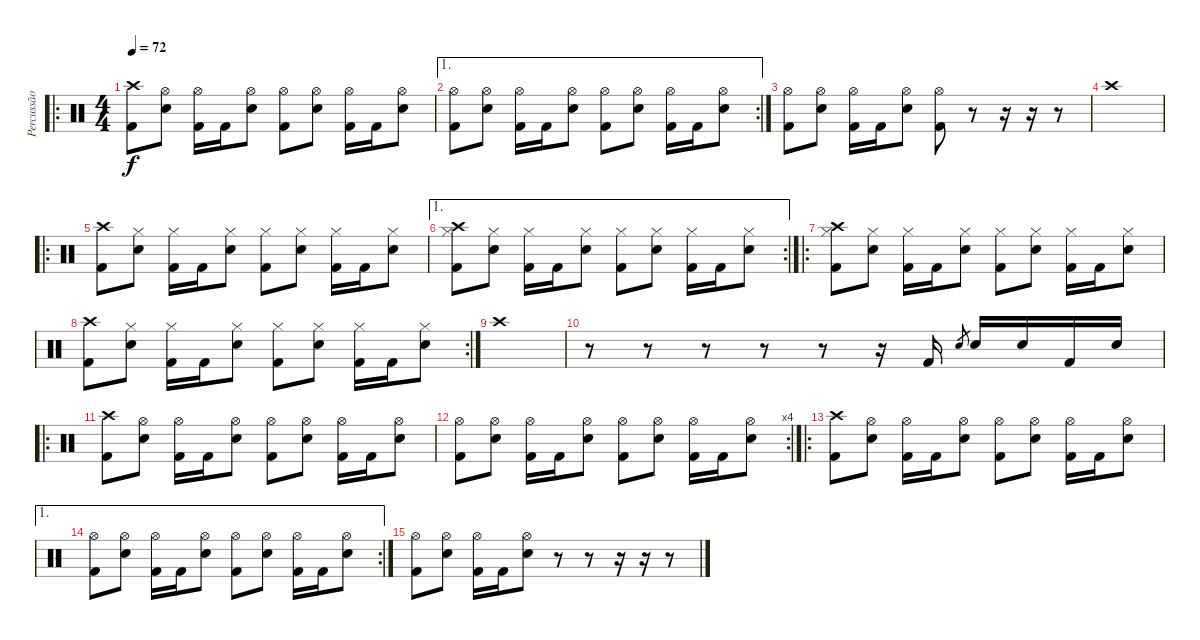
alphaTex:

\track ("Percussão" "Percussão") {instrument percussion}
\staff {score}
\articulation defaults
\ro
\ts (4 4)
\tempo 72
\clef neutral
\ks c
("Crash high (hit)" "Kick (hit) 2").8{dy f} ("Electric Snare (hit)" "Hi-Hat (open)").8 ("Kick (hit) 2" "Hi-Hat (open)").16 "Kick (hit) 2".16 ("Electric Snare (hit)" "Hi-Hat (open)").8 ("Kick (hit) 2" "Hi-Hat (open)").8 ("Electric Snare (hit)" "Hi-Hat (open)").8 ("Kick (hit) 2" "Hi-Hat (open)").16 "Kick (hit) 2".16 ("Electric Snare (hit)" "Hi-Hat (open)").8 |
\ae 1
\rc 2
("Kick (hit) 2" "Hi-Hat (open)").8 ("Electric Snare (hit)" "Hi-Hat (open)").8 ("Kick (hit) 2" "Hi-Hat (open)").16 "Kick (hit) 2".16 ("Electric Snare (hit)" "Hi-Hat (open)").8 ("Kick (hit) 2" "Hi-Hat (open)").8 ("Electric Snare (hit)" "Hi-Hat (open)").8 ("Kick (hit) 2" "Hi-Hat (open)").16 "Kick (hit) 2".16 ("Electric Snare (hit)" "Hi-Hat (open)").8 |
("Kick (hit) 2" "Hi-Hat (open)").8 ("Electric Snare (hit)" "Hi-Hat (open)").8 ("Kick (hit) 2" "Hi-Hat (open)").16 "Kick (hit) 2".16 ("Electric Snare (hit)" "Hi-Hat (open)").8 ("Kick (hit) 2" "Hi-Hat (open)").8 r.8 r.16 r.16 r.8 |
"Crash high (hit)".1 |
\ro
("Crash high (hit)" "Kick (hit) 2").8 ("Electric Snare (hit)" "Hi-Hat (closed)").8 ("Kick (hit) 2" "Hi-Hat (closed)").16 "Kick (hit) 2".16 ("Electric Snare (hit)" "Hi-Hat (closed)").8 ("Kick (hit) 2" "Hi-Hat (closed)").8 ("Electric Snare (hit)" "Hi-Hat (closed)").8 ("Kick (hit) 2" "Hi-Hat (closed)").16 "Kick (hit) 2".16 ("Electric Snare (hit)" "Hi-Hat (closed)").8 |
\ae 1
\rc 2
("Crash high (hit)" "Kick (hit) 2" "Hi-Hat (closed)").8 ("Electric Snare (hit)" "Hi-Hat (closed)").8 ("Kick (hit) 2" "Hi-Hat (closed)").16 "Kick (hit) 2".16 ("Electric Snare (hit)" "Hi-Hat (closed)").8 ("Kick (hit) 2" "Hi-Hat (closed)").8 ("Electric Snare (hit)" "Hi-Hat (closed)").8 ("Kick (hit) 2" "Hi-Hat (closed)").16 "Kick (hit) 2".16 ("Electric Snare (hit)" "Hi-Hat (closed)").8 |
\ro
("Crash high (hit)" "Kick (hit) 2" "Hi-Hat (closed)").8 ("Electric Snare (hit)" "Hi-Hat (closed)").8 ("Kick (hit) 2" "Hi-Hat (closed)").16 "Kick (hit) 2".16 ("Electric Snare (hit)" "Hi-Hat (closed)").8 ("Kick (hit) 2" "Hi-Hat (closed)").8 ("Electric Snare (hit)" "Hi-Hat (closed)").8 ("Kick (hit) 2" "Hi-Hat (closed)").16 "Kick (hit) 2".16 ("Electric Snare (hit)" "Hi-Hat (closed)").8 |
\rc 2
("Crash high (hit)" "Kick (hit) 2").8 ("Electric Snare (hit)" "Hi-Hat (closed)").8 ("Kick (hit) 2" "Hi-Hat (closed)").16 "Kick (hit) 2".16 ("Electric Snare (hit)" "Hi-Hat (closed)").8 ("Kick (hit) 2" "Hi-Hat (closed)").8 ("Electric Snare (hit)" "Hi-Hat (closed)").8 ("Kick (hit) 2" "Hi-Hat (closed)").16 "Kick (hit) 2".16 ("Electric Snare (hit)" "Hi-Hat (closed)").8 |
"Crash high (hit)".1 |
r.8 r.8 r.8 r.8 r.8 r.16 "Kick (hit) 2".16 "Electric Snare (hit)".8{gr} "Electric Snare (hit)".16 "Electric Snare (hit)".16 "Kick (hit) 2".16 "Electric Snare (hit)".16 |
\ro
("Crash high (hit)" "Kick (hit) 2").8 ("Electric Snare (hit)" "Hi-Hat (open)").8 ("Kick (hit) 2" "Hi-Hat (open)").16 "Kick (hit) 2".16 ("Electric Snare (hit)" "Hi-Hat (open)").8 ("Kick (hit) 2" "Hi-Hat (open)").8 ("Electric Snare (hit)" "Hi-Hat (open)").8 ("Kick (hit) 2" "Hi-Hat (open)").16 "Kick (hit) 2".16 ("Electric Snare (hit)" "Hi-Hat (open)").8 |
\rc 4
("Kick (hit) 2" "Hi-Hat (open)").8 ("Electric Snare (hit)" "Hi-Hat (open)").8 ("Kick (hit) 2" "Hi-Hat (open)").16 "Kick (hit) 2".16 ("Electric Snare (hit)" "Hi-Hat (open)").8 ("Kick (hit) 2" "Hi-Hat (open)").8 ("Electric Snare (hit)" "Hi-Hat (open)").8 ("Kick (hit) 2" "Hi-Hat (open)").16 "Kick (hit) 2".16 ("Electric Snare (hit)" "Hi-Hat (open)").8 |
\ro
("Crash high (hit)" "Kick (hit) 2").8 ("Electric Snare (hit)" "Hi-Hat (open)").8 ("Kick (hit) 2" "Hi-Hat (open)").16 "Kick (hit) 2".16 ("Electric Snare (hit)" "Hi-Hat (open)").8 ("Kick (hit) 2" "Hi-Hat (open)").8 ("Electric Snare (hit)" "Hi-Hat (open)").8 ("Kick (hit) 2" "Hi-Hat (open)").16 "Kick (hit) 2".16 ("Electric Snare (hit)" "Hi-Hat (open)").8 |
\ae 1
\rc 2
("Kick (hit) 2" "Hi-Hat (open)").8 ("Electric Snare (hit)" "Hi-Hat (open)").8 ("Kick (hit) 2" "Hi-Hat (open)").16 "Kick (hit) 2".16 ("Electric Snare (hit)" "Hi-Hat (open)").8 ("Kick (hit) 2" "Hi-Hat (open)").8 ("Electric Snare (hit)" "Hi-Hat (open)").8 ("Kick (hit) 2" "Hi-Hat (open)").16 "Kick (hit) 2".16 ("Electric Snare (hit)" "Hi-Hat (open)").8 |
("Kick (hit) 2" "Hi-Hat (open)").8 ("Electric Snare (hit)" "Hi-Hat (open)").8 ("Kick (hit) 2" "Hi-Hat (open)").16 "Kick (hit) 2".16 ("Electric Snare (hit)" "Hi-Hat (open)").8 r.8 r.8 r.16 r.16 r.8
